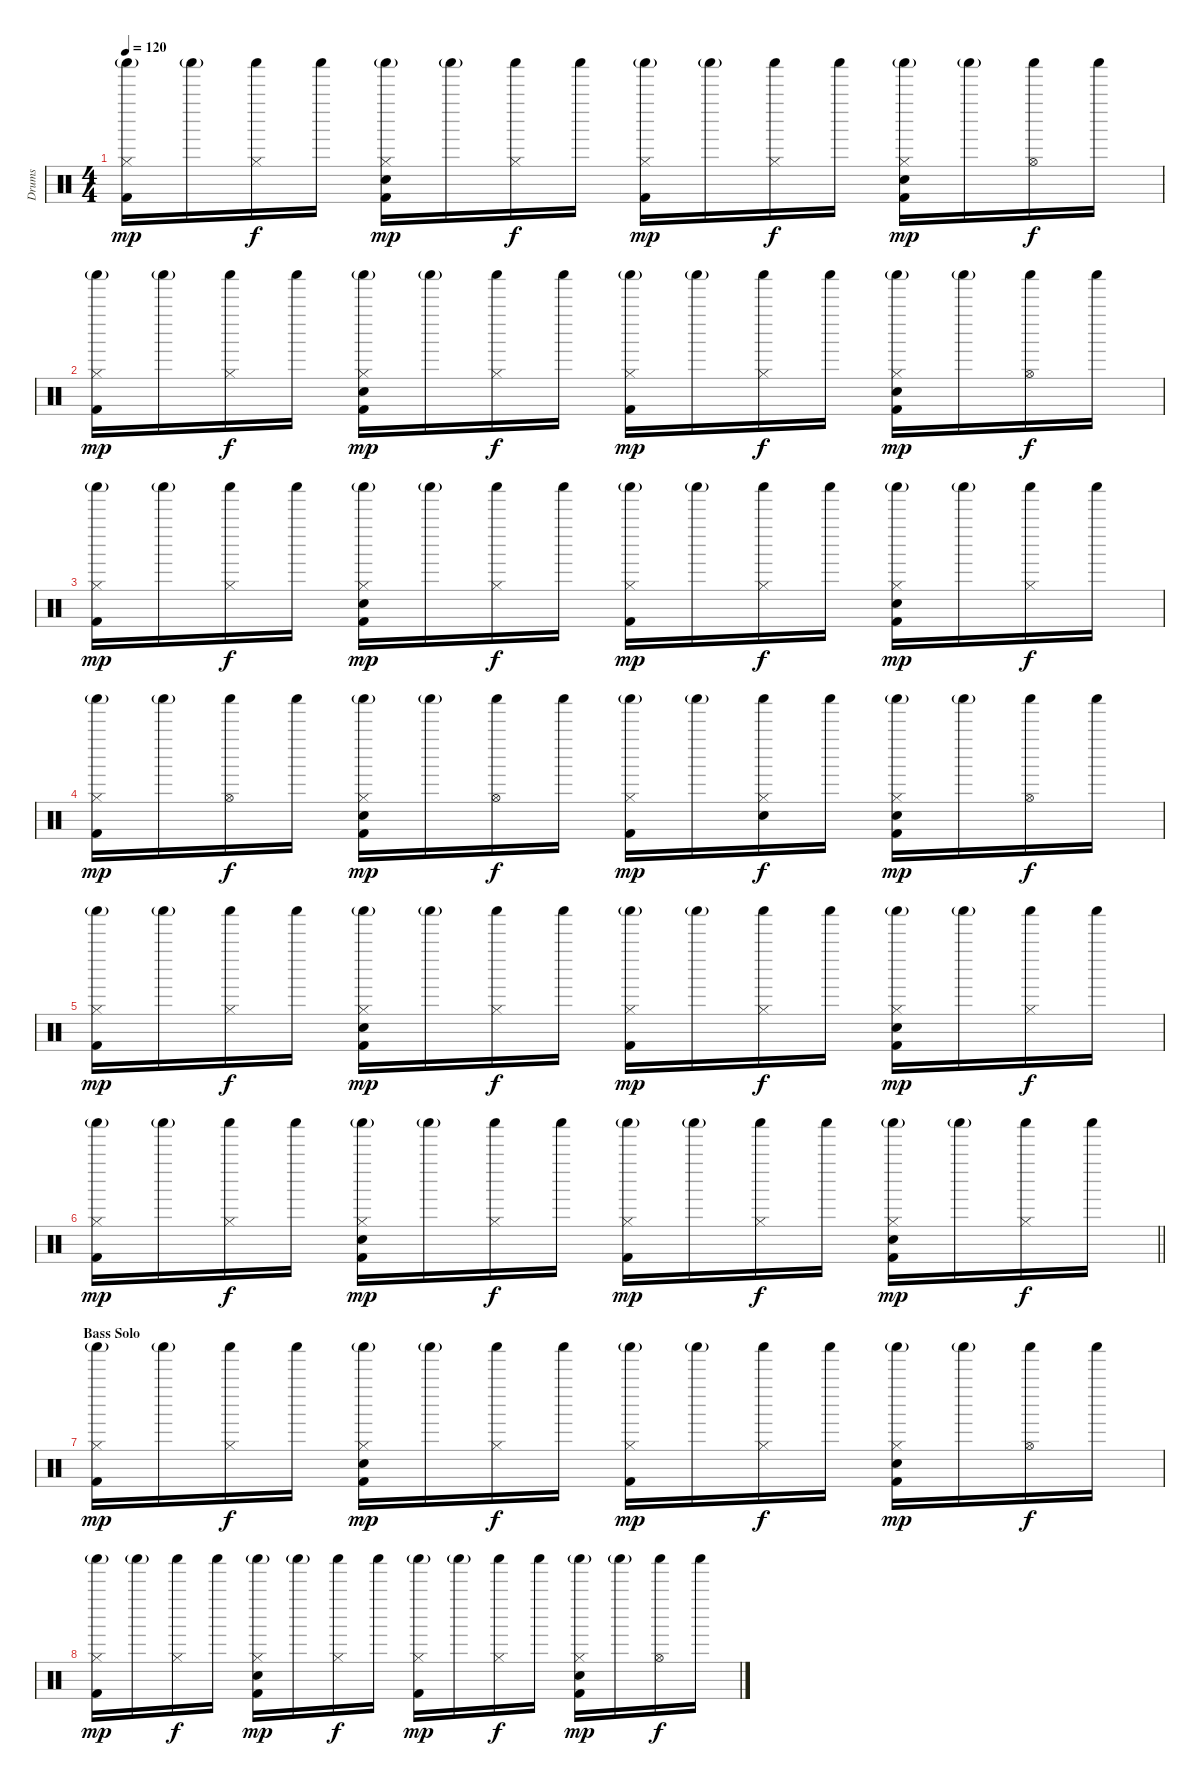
\track ("Drums" "Drums") {instrument percussion}
\staff {score}
\articulation defaults
\ts (4 4)
\tempo 120
\clef neutral
\ks c
("Hi-Hat (closed)" "Shaker (hit)"{g} "Kick (hit) 2").16{dy mp} "Shaker (hit)"{g}.16 ("Hi-Hat (closed)" "Shaker (hit)").16{dy f} "Shaker (hit)".16 ("Hi-Hat (closed)" "Shaker (hit)"{g} "Electric Snare (hit)" "Kick (hit) 2").16{dy mp} "Shaker (hit)"{g}.16 ("Hi-Hat (closed)" "Shaker (hit)").16{dy f} "Shaker (hit)".16 ("Hi-Hat (closed)" "Shaker (hit)"{g} "Kick (hit) 2").16{dy mp} "Shaker (hit)"{g}.16 ("Hi-Hat (closed)" "Shaker (hit)").16{dy f} "Shaker (hit)".16 ("Hi-Hat (closed)" "Shaker (hit)"{g} "Electric Snare (hit)" "Kick (hit) 2").16{dy mp} "Shaker (hit)"{g}.16 ("Hi-Hat (open)" "Shaker (hit)").16{dy f} "Shaker (hit)".16 |
("Hi-Hat (closed)" "Shaker (hit)"{g} "Kick (hit) 2").16{dy mp} "Shaker (hit)"{g}.16 ("Hi-Hat (closed)" "Shaker (hit)").16{dy f} "Shaker (hit)".16 ("Hi-Hat (closed)" "Shaker (hit)"{g} "Electric Snare (hit)" "Kick (hit) 2").16{dy mp} "Shaker (hit)"{g}.16 ("Hi-Hat (closed)" "Shaker (hit)").16{dy f} "Shaker (hit)".16 ("Hi-Hat (closed)" "Shaker (hit)"{g} "Kick (hit) 2").16{dy mp} "Shaker (hit)"{g}.16 ("Hi-Hat (closed)" "Shaker (hit)").16{dy f} "Shaker (hit)".16 ("Hi-Hat (closed)" "Shaker (hit)"{g} "Electric Snare (hit)" "Kick (hit) 2").16{dy mp} "Shaker (hit)"{g}.16 ("Hi-Hat (open)" "Shaker (hit)").16{dy f} "Shaker (hit)".16 |
("Hi-Hat (closed)" "Shaker (hit)"{g} "Kick (hit) 2").16{dy mp} "Shaker (hit)"{g}.16 ("Hi-Hat (closed)" "Shaker (hit)").16{dy f} "Shaker (hit)".16 ("Hi-Hat (closed)" "Shaker (hit)"{g} "Electric Snare (hit)" "Kick (hit) 2").16{dy mp} "Shaker (hit)"{g}.16 ("Hi-Hat (closed)" "Shaker (hit)").16{dy f} "Shaker (hit)".16 ("Hi-Hat (closed)" "Shaker (hit)"{g} "Kick (hit) 2").16{dy mp} "Shaker (hit)"{g}.16 ("Hi-Hat (closed)" "Shaker (hit)").16{dy f} "Shaker (hit)".16 ("Hi-Hat (closed)" "Shaker (hit)"{g} "Electric Snare (hit)" "Kick (hit) 2").16{dy mp} "Shaker (hit)"{g}.16 ("Hi-Hat (closed)" "Shaker (hit)").16{dy f} "Shaker (hit)".16 |
("Hi-Hat (closed)" "Shaker (hit)"{g} "Kick (hit) 2").16{dy mp} "Shaker (hit)"{g}.16 ("Hi-Hat (open)" "Shaker (hit)").16{dy f} "Shaker (hit)".16 ("Hi-Hat (closed)" "Shaker (hit)"{g} "Electric Snare (hit)" "Kick (hit) 2").16{dy mp} "Shaker (hit)"{g}.16 ("Hi-Hat (open)" "Shaker (hit)").16{dy f} "Shaker (hit)".16 ("Hi-Hat (closed)" "Shaker (hit)"{g} "Kick (hit) 2").16{dy mp} "Shaker (hit)"{g}.16 ("Hi-Hat (closed)" "Shaker (hit)" "Electric Snare (hit)").16{dy f} "Shaker (hit)".16 ("Hi-Hat (closed)" "Shaker (hit)"{g} "Electric Snare (hit)" "Kick (hit) 2").16{dy mp} "Shaker (hit)"{g}.16 ("Hi-Hat (open)" "Shaker (hit)").16{dy f} "Shaker (hit)".16 |
("Hi-Hat (closed)" "Shaker (hit)"{g} "Kick (hit) 2").16{dy mp} "Shaker (hit)"{g}.16 ("Hi-Hat (closed)" "Shaker (hit)").16{dy f} "Shaker (hit)".16 ("Hi-Hat (closed)" "Shaker (hit)"{g} "Electric Snare (hit)" "Kick (hit) 2").16{dy mp} "Shaker (hit)"{g}.16 ("Hi-Hat (closed)" "Shaker (hit)").16{dy f} "Shaker (hit)".16 ("Hi-Hat (closed)" "Shaker (hit)"{g} "Kick (hit) 2").16{dy mp} "Shaker (hit)"{g}.16 ("Hi-Hat (closed)" "Shaker (hit)").16{dy f} "Shaker (hit)".16 ("Hi-Hat (closed)" "Shaker (hit)"{g} "Electric Snare (hit)" "Kick (hit) 2").16{dy mp} "Shaker (hit)"{g}.16 ("Hi-Hat (closed)" "Shaker (hit)").16{dy f} "Shaker (hit)".16 |
\barLineRight lightlight
("Hi-Hat (closed)" "Shaker (hit)"{g} "Kick (hit) 2").16{dy mp} "Shaker (hit)"{g}.16 ("Hi-Hat (closed)" "Shaker (hit)").16{dy f} "Shaker (hit)".16 ("Hi-Hat (closed)" "Shaker (hit)"{g} "Electric Snare (hit)" "Kick (hit) 2").16{dy mp} "Shaker (hit)"{g}.16 ("Hi-Hat (closed)" "Shaker (hit)").16{dy f} "Shaker (hit)".16 ("Hi-Hat (closed)" "Shaker (hit)"{g} "Kick (hit) 2").16{dy mp} "Shaker (hit)"{g}.16 ("Hi-Hat (closed)" "Shaker (hit)").16{dy f} "Shaker (hit)".16 ("Hi-Hat (closed)" "Shaker (hit)"{g} "Electric Snare (hit)" "Kick (hit) 2").16{dy mp} "Shaker (hit)"{g}.16 ("Hi-Hat (closed)" "Shaker (hit)").16{dy f} "Shaker (hit)".16 |
\section ("" "Bass Solo")
("Hi-Hat (closed)" "Shaker (hit)"{g} "Kick (hit) 2").16{dy mp} "Shaker (hit)"{g}.16 ("Hi-Hat (closed)" "Shaker (hit)").16{dy f} "Shaker (hit)".16 ("Hi-Hat (closed)" "Shaker (hit)"{g} "Electric Snare (hit)" "Kick (hit) 2").16{dy mp} "Shaker (hit)"{g}.16 ("Hi-Hat (closed)" "Shaker (hit)").16{dy f} "Shaker (hit)".16 ("Hi-Hat (closed)" "Shaker (hit)"{g} "Kick (hit) 2").16{dy mp} "Shaker (hit)"{g}.16 ("Hi-Hat (closed)" "Shaker (hit)").16{dy f} "Shaker (hit)".16 ("Hi-Hat (closed)" "Shaker (hit)"{g} "Electric Snare (hit)" "Kick (hit) 2").16{dy mp} "Shaker (hit)"{g}.16 ("Hi-Hat (open)" "Shaker (hit)").16{dy f} "Shaker (hit)".16 |
("Hi-Hat (closed)" "Shaker (hit)"{g} "Kick (hit) 2").16{dy mp} "Shaker (hit)"{g}.16 ("Hi-Hat (closed)" "Shaker (hit)").16{dy f} "Shaker (hit)".16 ("Hi-Hat (closed)" "Shaker (hit)"{g} "Electric Snare (hit)" "Kick (hit) 2").16{dy mp} "Shaker (hit)"{g}.16 ("Hi-Hat (closed)" "Shaker (hit)").16{dy f} "Shaker (hit)".16 ("Hi-Hat (closed)" "Shaker (hit)"{g} "Kick (hit) 2").16{dy mp} "Shaker (hit)"{g}.16 ("Hi-Hat (closed)" "Shaker (hit)").16{dy f} "Shaker (hit)".16 ("Hi-Hat (closed)" "Shaker (hit)"{g} "Electric Snare (hit)" "Kick (hit) 2").16{dy mp} "Shaker (hit)"{g}.16 ("Hi-Hat (open)" "Shaker (hit)").16{dy f} "Shaker (hit)".16
